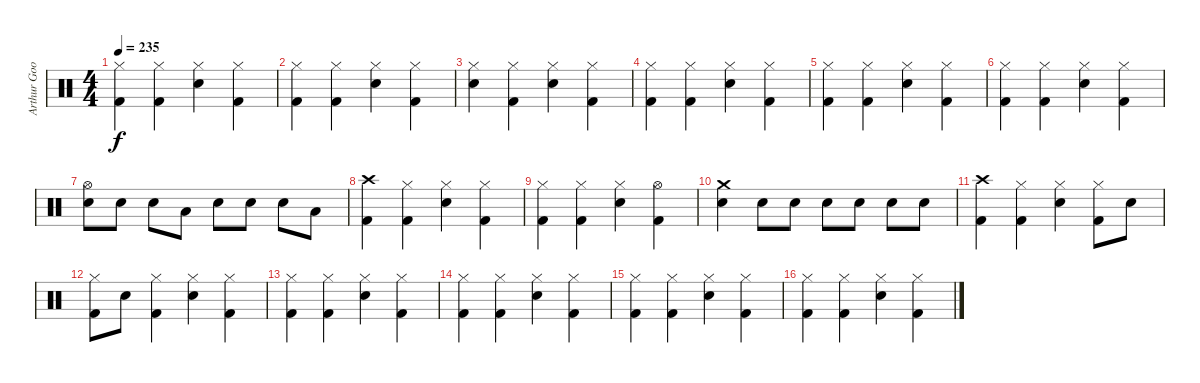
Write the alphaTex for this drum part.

\track ("Arthur Googy" "Arthur Goo") {instrument percussion}
\staff {score}
\articulation defaults
\ts (4 4)
\tempo 235
\clef neutral
\ks c
("Hi-Hat (closed)" "Kick (hit) 2").4{dy f} ("Hi-Hat (closed)" "Kick (hit) 2").4 ("Hi-Hat (closed)" "Electric Snare (hit)").4 ("Hi-Hat (closed)" "Kick (hit) 2").4 |
("Hi-Hat (closed)" "Kick (hit) 2").4 ("Hi-Hat (closed)" "Kick (hit) 2").4 ("Hi-Hat (closed)" "Electric Snare (hit)").4 ("Hi-Hat (closed)" "Kick (hit) 2").4 |
("Hi-Hat (closed)" "Electric Snare (hit)").4 ("Hi-Hat (closed)" "Kick (hit) 2").4 ("Hi-Hat (closed)" "Electric Snare (hit)").4 ("Hi-Hat (closed)" "Kick (hit) 2").4 |
("Hi-Hat (closed)" "Kick (hit) 2").4 ("Hi-Hat (closed)" "Kick (hit) 2").4 ("Hi-Hat (closed)" "Electric Snare (hit)").4 ("Hi-Hat (closed)" "Kick (hit) 2").4 |
("Hi-Hat (closed)" "Kick (hit) 2").4 ("Hi-Hat (closed)" "Kick (hit) 2").4 ("Hi-Hat (closed)" "Electric Snare (hit)").4 ("Hi-Hat (closed)" "Kick (hit) 2").4 |
("Hi-Hat (closed)" "Kick (hit) 2").4 ("Hi-Hat (closed)" "Kick (hit) 2").4 ("Hi-Hat (closed)" "Electric Snare (hit)").4 ("Hi-Hat (closed)" "Kick (hit) 2").4 |
("Hi-Hat (open)" "Electric Snare (hit)").8 "Electric Snare (hit)".8 "Electric Snare (hit)".8 "Low Tom (hit)".8 "Electric Snare (hit)".8 "Electric Snare (hit)".8 "Electric Snare (hit)".8 "Low Tom (hit)".8 |
("Crash high (hit)" "Kick (hit) 2").4 ("Hi-Hat (closed)" "Kick (hit) 2").4 ("Hi-Hat (closed)" "Electric Snare (hit)").4 ("Hi-Hat (closed)" "Kick (hit) 2").4 |
("Hi-Hat (closed)" "Kick (hit) 2").4 ("Hi-Hat (closed)" "Kick (hit) 2").4 ("Hi-Hat (closed)" "Electric Snare (hit)").4 ("Hi-Hat (open)" "Kick (hit) 2").4 |
("Crash medium (hit)" "Electric Snare (hit)").4 "Electric Snare (hit)".8 "Electric Snare (hit)".8 "Electric Snare (hit)".8 "Electric Snare (hit)".8 "Electric Snare (hit)".8 "Electric Snare (hit)".8 |
("Crash high (hit)" "Kick (hit) 2").4 ("Hi-Hat (closed)" "Kick (hit) 2").4 ("Hi-Hat (closed)" "Electric Snare (hit)").4 ("Hi-Hat (closed)" "Kick (hit) 2").8 "Electric Snare (hit)".8 |
("Hi-Hat (closed)" "Kick (hit) 2").8 "Electric Snare (hit)".8 ("Hi-Hat (closed)" "Kick (hit) 2").4 ("Hi-Hat (closed)" "Electric Snare (hit)").4 ("Hi-Hat (closed)" "Kick (hit) 2").4 |
("Hi-Hat (closed)" "Kick (hit) 2").4 ("Hi-Hat (closed)" "Kick (hit) 2").4 ("Hi-Hat (closed)" "Electric Snare (hit)").4 ("Hi-Hat (closed)" "Kick (hit) 2").4 |
("Hi-Hat (closed)" "Kick (hit) 2").4 ("Hi-Hat (closed)" "Kick (hit) 2").4 ("Hi-Hat (closed)" "Electric Snare (hit)").4 ("Hi-Hat (closed)" "Kick (hit) 2").4 |
("Hi-Hat (closed)" "Kick (hit) 2").4 ("Hi-Hat (closed)" "Kick (hit) 2").4 ("Hi-Hat (closed)" "Electric Snare (hit)").4 ("Hi-Hat (closed)" "Kick (hit) 2").4 |
("Hi-Hat (closed)" "Kick (hit) 2").4 ("Hi-Hat (closed)" "Kick (hit) 2").4 ("Hi-Hat (closed)" "Electric Snare (hit)").4 ("Hi-Hat (closed)" "Kick (hit) 2").4
